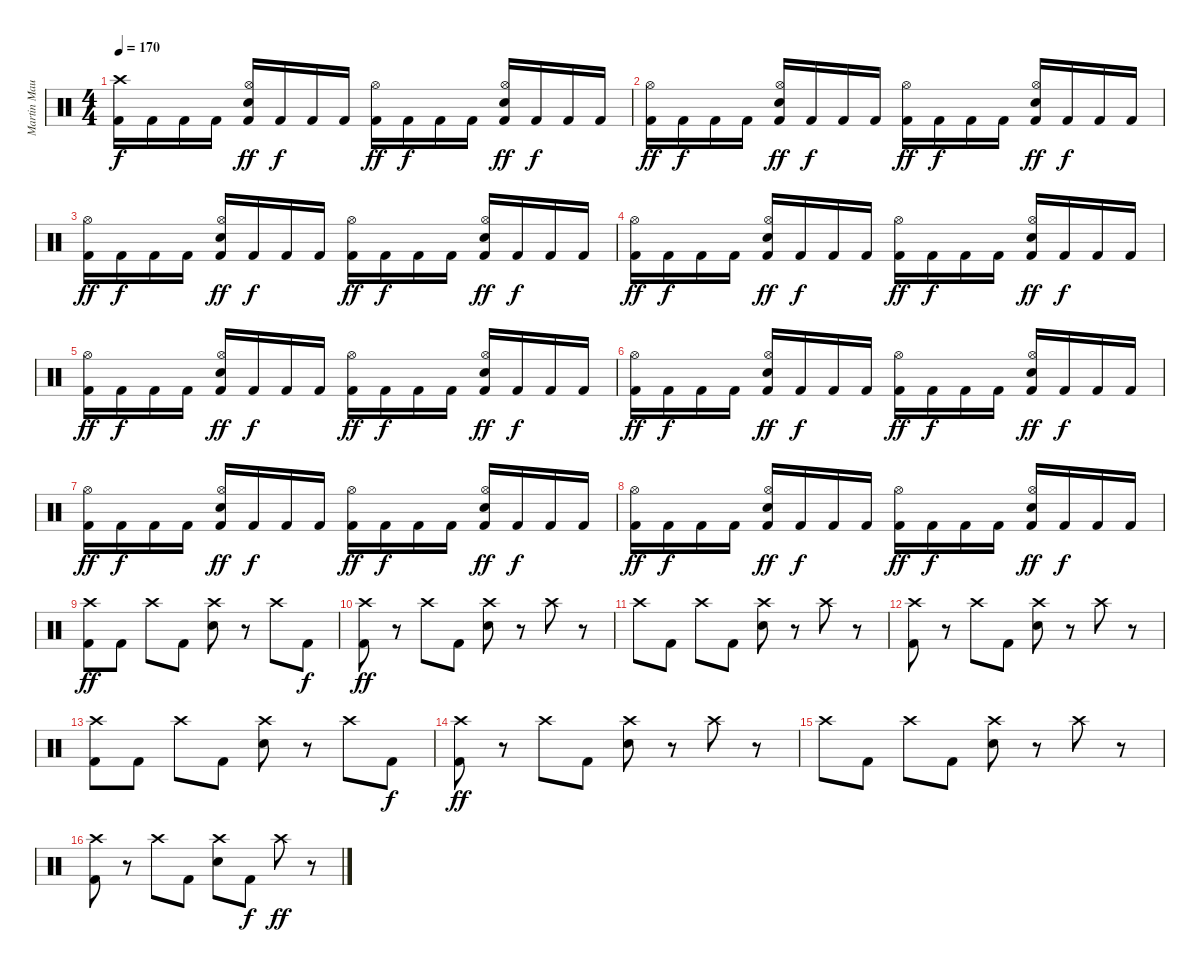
\track ("Martin Maurais " "Martin Mau") {instrument percussion}
\staff {score}
\articulation defaults
\ts (4 4)
\tempo 170
\clef neutral
\ks c
("Crash high (hit)" "Kick (hit) 2").16{dy f} "Kick (hit) 2".16 "Kick (hit) 2".16 "Kick (hit) 2".16 ("Hi-Hat (open)" "Snare (hit) 2" "Kick (hit) 2").16{dy ff} "Kick (hit) 2".16{dy f} "Kick (hit) 2".16 "Kick (hit) 2".16 ("Hi-Hat (open)" "Kick (hit) 2").16{dy ff} "Kick (hit) 2".16{dy f} "Kick (hit) 2".16 "Kick (hit) 2".16 ("Hi-Hat (open)" "Snare (hit) 2" "Kick (hit) 2").16{dy ff} "Kick (hit) 2".16{dy f} "Kick (hit) 2".16 "Kick (hit) 2".16 |
("Hi-Hat (open)" "Kick (hit) 2").16{dy ff} "Kick (hit) 2".16{dy f} "Kick (hit) 2".16 "Kick (hit) 2".16 ("Hi-Hat (open)" "Snare (hit) 2" "Kick (hit) 2").16{dy ff} "Kick (hit) 2".16{dy f} "Kick (hit) 2".16 "Kick (hit) 2".16 ("Hi-Hat (open)" "Kick (hit) 2").16{dy ff} "Kick (hit) 2".16{dy f} "Kick (hit) 2".16 "Kick (hit) 2".16 ("Hi-Hat (open)" "Snare (hit) 2" "Kick (hit) 2").16{dy ff} "Kick (hit) 2".16{dy f} "Kick (hit) 2".16 "Kick (hit) 2".16 |
("Hi-Hat (open)" "Kick (hit) 2").16{dy ff} "Kick (hit) 2".16{dy f} "Kick (hit) 2".16 "Kick (hit) 2".16 ("Hi-Hat (open)" "Snare (hit) 2" "Kick (hit) 2").16{dy ff} "Kick (hit) 2".16{dy f} "Kick (hit) 2".16 "Kick (hit) 2".16 ("Hi-Hat (open)" "Kick (hit) 2").16{dy ff} "Kick (hit) 2".16{dy f} "Kick (hit) 2".16 "Kick (hit) 2".16 ("Hi-Hat (open)" "Snare (hit) 2" "Kick (hit) 2").16{dy ff} "Kick (hit) 2".16{dy f} "Kick (hit) 2".16 "Kick (hit) 2".16 |
("Hi-Hat (open)" "Kick (hit) 2").16{dy ff} "Kick (hit) 2".16{dy f} "Kick (hit) 2".16 "Kick (hit) 2".16 ("Hi-Hat (open)" "Snare (hit) 2" "Kick (hit) 2").16{dy ff} "Kick (hit) 2".16{dy f} "Kick (hit) 2".16 "Kick (hit) 2".16 ("Hi-Hat (open)" "Kick (hit) 2").16{dy ff} "Kick (hit) 2".16{dy f} "Kick (hit) 2".16 "Kick (hit) 2".16 ("Hi-Hat (open)" "Snare (hit) 2" "Kick (hit) 2").16{dy ff} "Kick (hit) 2".16{dy f} "Kick (hit) 2".16 "Kick (hit) 2".16 |
("Hi-Hat (open)" "Kick (hit) 2").16{dy ff} "Kick (hit) 2".16{dy f} "Kick (hit) 2".16 "Kick (hit) 2".16 ("Hi-Hat (open)" "Snare (hit) 2" "Kick (hit) 2").16{dy ff} "Kick (hit) 2".16{dy f} "Kick (hit) 2".16 "Kick (hit) 2".16 ("Hi-Hat (open)" "Kick (hit) 2").16{dy ff} "Kick (hit) 2".16{dy f} "Kick (hit) 2".16 "Kick (hit) 2".16 ("Hi-Hat (open)" "Snare (hit) 2" "Kick (hit) 2").16{dy ff} "Kick (hit) 2".16{dy f} "Kick (hit) 2".16 "Kick (hit) 2".16 |
("Hi-Hat (open)" "Kick (hit) 2").16{dy ff} "Kick (hit) 2".16{dy f} "Kick (hit) 2".16 "Kick (hit) 2".16 ("Hi-Hat (open)" "Snare (hit) 2" "Kick (hit) 2").16{dy ff} "Kick (hit) 2".16{dy f} "Kick (hit) 2".16 "Kick (hit) 2".16 ("Hi-Hat (open)" "Kick (hit) 2").16{dy ff} "Kick (hit) 2".16{dy f} "Kick (hit) 2".16 "Kick (hit) 2".16 ("Hi-Hat (open)" "Snare (hit) 2" "Kick (hit) 2").16{dy ff} "Kick (hit) 2".16{dy f} "Kick (hit) 2".16 "Kick (hit) 2".16 |
("Hi-Hat (open)" "Kick (hit) 2").16{dy ff} "Kick (hit) 2".16{dy f} "Kick (hit) 2".16 "Kick (hit) 2".16 ("Hi-Hat (open)" "Snare (hit) 2" "Kick (hit) 2").16{dy ff} "Kick (hit) 2".16{dy f} "Kick (hit) 2".16 "Kick (hit) 2".16 ("Hi-Hat (open)" "Kick (hit) 2").16{dy ff} "Kick (hit) 2".16{dy f} "Kick (hit) 2".16 "Kick (hit) 2".16 ("Hi-Hat (open)" "Snare (hit) 2" "Kick (hit) 2").16{dy ff} "Kick (hit) 2".16{dy f} "Kick (hit) 2".16 "Kick (hit) 2".16 |
("Hi-Hat (open)" "Kick (hit) 2").16{dy ff} "Kick (hit) 2".16{dy f} "Kick (hit) 2".16 "Kick (hit) 2".16 ("Hi-Hat (open)" "Snare (hit) 2" "Kick (hit) 2").16{dy ff} "Kick (hit) 2".16{dy f} "Kick (hit) 2".16 "Kick (hit) 2".16 ("Hi-Hat (open)" "Kick (hit) 2").16{dy ff} "Kick (hit) 2".16{dy f} "Kick (hit) 2".16 "Kick (hit) 2".16 ("Hi-Hat (open)" "Snare (hit) 2" "Kick (hit) 2").16{dy ff} "Kick (hit) 2".16{dy f} "Kick (hit) 2".16 "Kick (hit) 2".16 |
("Crash high (hit)" "Kick (hit) 2").8{dy ff} "Kick (hit) 2".8 "Crash high (hit)".8 "Kick (hit) 2".8 ("Crash high (hit)" "Snare (hit) 2").8 r.8 "Crash high (hit)".8 "Kick (hit) 2".8{dy f} |
("Crash high (hit)" "Kick (hit) 2").8{dy ff} r.8 "Crash high (hit)".8 "Kick (hit) 2".8 ("Crash high (hit)" "Snare (hit) 2").8 r.8 "Crash high (hit)".8 r.8 |
"Crash high (hit)".8 "Kick (hit) 2".8 "Crash high (hit)".8 "Kick (hit) 2".8 ("Crash high (hit)" "Snare (hit) 2").8 r.8 "Crash high (hit)".8 r.8 |
("Crash high (hit)" "Kick (hit) 2").8 r.8 "Crash high (hit)".8 "Kick (hit) 2".8 ("Crash high (hit)" "Snare (hit) 2").8 r.8 "Crash high (hit)".8 r.8 |
("Crash high (hit)" "Kick (hit) 2").8 "Kick (hit) 2".8 "Crash high (hit)".8 "Kick (hit) 2".8 ("Crash high (hit)" "Snare (hit) 2").8 r.8 "Crash high (hit)".8 "Kick (hit) 2".8{dy f} |
("Crash high (hit)" "Kick (hit) 2").8{dy ff} r.8 "Crash high (hit)".8 "Kick (hit) 2".8 ("Crash high (hit)" "Snare (hit) 2").8 r.8 "Crash high (hit)".8 r.8 |
"Crash high (hit)".8 "Kick (hit) 2".8 "Crash high (hit)".8 "Kick (hit) 2".8 ("Crash high (hit)" "Snare (hit) 2").8 r.8 "Crash high (hit)".8 r.8 |
("Crash high (hit)" "Kick (hit) 2").8 r.8 "Crash high (hit)".8 "Kick (hit) 2".8 ("Crash high (hit)" "Snare (hit) 2").8 "Kick (hit) 2".8{dy f} "Crash high (hit)".8{dy ff} r.8
